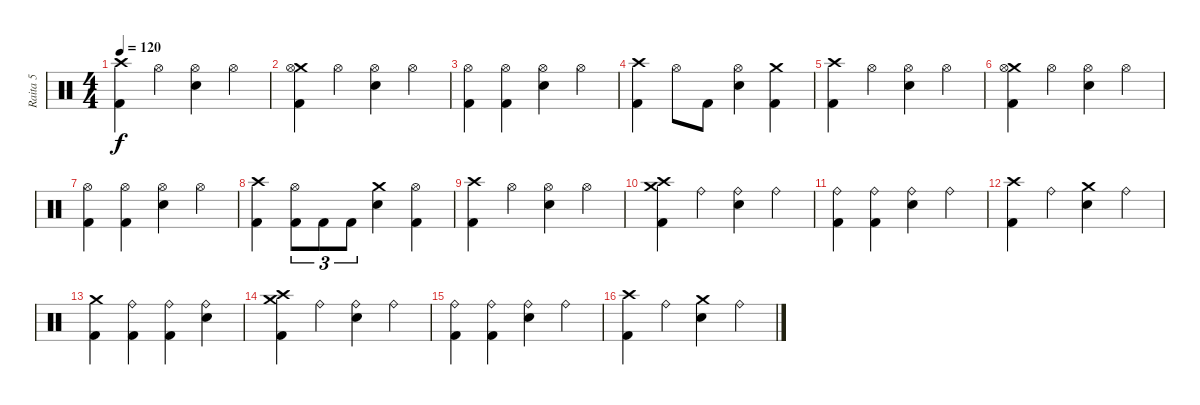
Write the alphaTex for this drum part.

\track ("Raita 5" "Raita 5") {instrument percussion}
\staff {score}
\articulation defaults
\ts (4 4)
\tempo 120
\clef neutral
\ks c
("Crash high (hit)" "Kick (hit) 2").4{dy f} "Hi-Hat (open)".4 ("Hi-Hat (open)" "Snare (hit) 2").4 "Hi-Hat (open)".4 |
("Crash medium (hit)" "Hi-Hat (open)" "Kick (hit) 2").4 "Hi-Hat (open)".4 ("Hi-Hat (open)" "Snare (hit) 2").4 "Hi-Hat (open)".4 |
("Hi-Hat (open)" "Kick (hit) 2").4 ("Hi-Hat (open)" "Kick (hit) 2").4 ("Hi-Hat (open)" "Snare (hit) 2").4 "Hi-Hat (open)".4 |
("Crash high (hit)" "Kick (hit) 2").4 "Hi-Hat (open)".8 "Kick (hit) 2".8 ("Hi-Hat (open)" "Snare (hit) 2").4 ("Crash medium (hit)" "Kick (hit) 2").4 |
("Crash high (hit)" "Kick (hit) 2").4 "Hi-Hat (open)".4 ("Hi-Hat (open)" "Snare (hit) 2").4 "Hi-Hat (open)".4 |
("Crash medium (hit)" "Hi-Hat (open)" "Kick (hit) 2").4 "Hi-Hat (open)".4 ("Hi-Hat (open)" "Snare (hit) 2").4 "Hi-Hat (open)".4 |
("Hi-Hat (open)" "Kick (hit) 2").4 ("Hi-Hat (open)" "Kick (hit) 2").4 ("Hi-Hat (open)" "Snare (hit) 2").4 "Hi-Hat (open)".4 |
("Crash high (hit)" "Kick (hit) 2").4 ("Hi-Hat (open)" "Kick (hit) 2").8{tu (3 2)} "Kick (hit) 2".8{tu (3 2)} "Kick (hit) 2".8{tu (3 2)} ("Crash medium (hit)" "Snare (hit) 2").4 ("Hi-Hat (open)" "Kick (hit) 2").4 |
("Crash high (hit)" "Kick (hit) 2").4 "Hi-Hat (open)".4 ("Hi-Hat (open)" "Snare (hit) 2").4 "Hi-Hat (open)".4 |
("Crash medium (hit)" "Crash high (hit)" "Kick (hit) 2").4 "Ride (bell)".4 ("Ride (bell)" "Snare (hit) 2").4 "Ride (bell)".4 |
("Ride (bell)" "Kick (hit) 2").4 ("Ride (bell)" "Kick (hit) 2").4 ("Ride (bell)" "Snare (hit) 2").4 "Ride (bell)".4 |
("Crash high (hit)" "Kick (hit) 2").4 "Ride (bell)".4 ("Crash medium (hit)" "Snare (hit) 2").4 "Ride (bell)".4 |
("Crash medium (hit)" "Kick (hit) 2").4 ("Ride (bell)" "Kick (hit) 2").4 ("Ride (bell)" "Kick (hit) 2").4 ("Ride (bell)" "Snare (hit) 2").4 |
("Crash medium (hit)" "Crash high (hit)" "Kick (hit) 2").4 "Ride (bell)".4 ("Ride (bell)" "Snare (hit) 2").4 "Ride (bell)".4 |
("Ride (bell)" "Kick (hit) 2").4 ("Ride (bell)" "Kick (hit) 2").4 ("Ride (bell)" "Snare (hit) 2").4 "Ride (bell)".4 |
("Crash high (hit)" "Kick (hit) 2").4 "Ride (bell)".4 ("Crash medium (hit)" "Snare (hit) 2").4 "Ride (bell)".4
